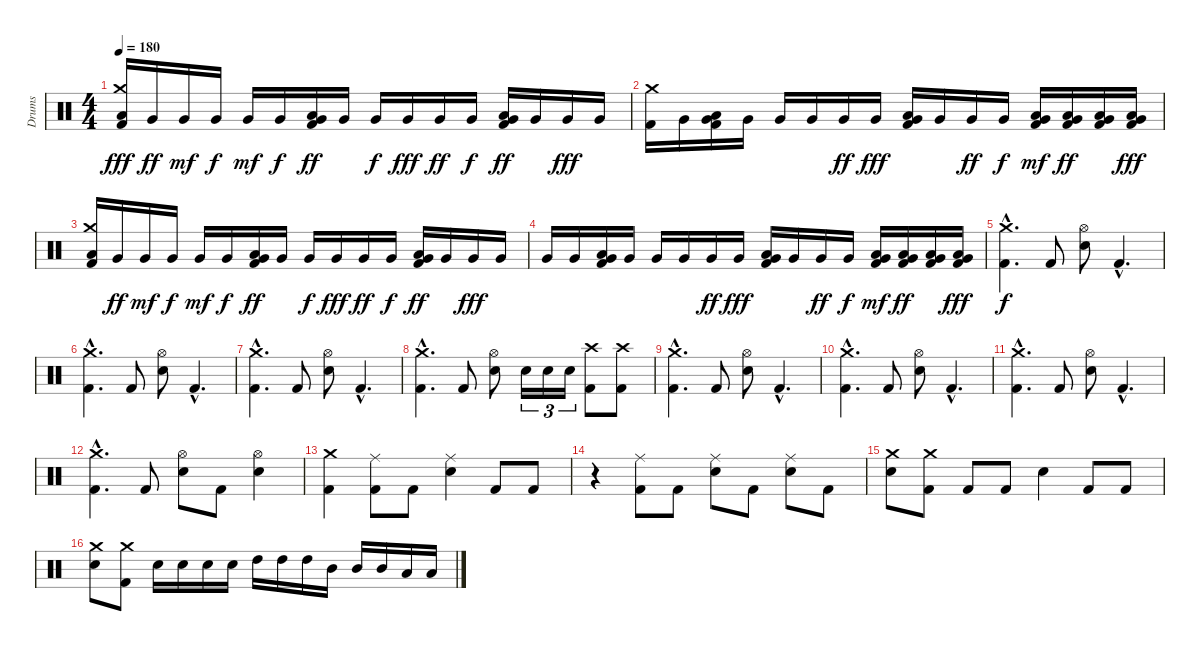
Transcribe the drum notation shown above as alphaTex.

\track ("Drums" "Drums") {instrument percussion}
\staff {score}
\articulation defaults
\ts (4 4)
\tempo 180
\clef neutral
\ks c
("Low Floor Tom (hit)" "Crash medium (hit)" "Kick (hit) 2").16{dy fff} "Very Low Tom (hit)".16{dy ff} "Very Low Tom (hit)".16{dy mf} "Very Low Tom (hit)".16{dy f} "Very Low Tom (hit)".16{dy mf} "Very Low Tom (hit)".16{dy f} ("Low Floor Tom (hit)" "Very Low Tom (hit)" "Kick (hit) 2").16{dy ff} "Very Low Tom (hit)".16 "Very Low Tom (hit)".16{dy f} "Very Low Tom (hit)".16{dy fff} "Very Low Tom (hit)".16{dy ff} "Very Low Tom (hit)".16{dy f} ("Low Floor Tom (hit)" "Very Low Tom (hit)" "Kick (hit) 2").16{dy ff} "Very Low Tom (hit)".16 "Very Low Tom (hit)".16{dy fff} "Very Low Tom (hit)".16 |
("Kick (hit) 2" "Crash medium (hit)").16 "Very Low Tom (hit)".16 ("Low Floor Tom (hit)" "Very Low Tom (hit)" "Kick (hit) 2").16 "Very Low Tom (hit)".16 "Very Low Tom (hit)".16 "Very Low Tom (hit)".16 "Very Low Tom (hit)".16{dy ff} "Very Low Tom (hit)".16{dy fff} ("Kick (hit) 2" "Very Low Tom (hit)" "Low Floor Tom (hit)").16 "Very Low Tom (hit)".16 "Very Low Tom (hit)".16{dy ff} "Very Low Tom (hit)".16{dy f} ("Kick (hit) 2" "Very Low Tom (hit)" "Low Floor Tom (hit)").16{dy mf} ("Low Floor Tom (hit)" "Very Low Tom (hit)" "Kick (hit) 2").16{dy ff} ("Low Floor Tom (hit)" "Very Low Tom (hit)" "Kick (hit) 2").16 ("Low Floor Tom (hit)" "Very Low Tom (hit)" "Kick (hit) 2").16{dy fff} |
("Low Floor Tom (hit)" "Crash medium (hit)" "Kick (hit) 2").16 "Very Low Tom (hit)".16{dy ff} "Very Low Tom (hit)".16{dy mf} "Very Low Tom (hit)".16{dy f} "Very Low Tom (hit)".16{dy mf} "Very Low Tom (hit)".16{dy f} ("Low Floor Tom (hit)" "Very Low Tom (hit)" "Kick (hit) 2").16{dy ff} "Very Low Tom (hit)".16 "Very Low Tom (hit)".16{dy f} "Very Low Tom (hit)".16{dy fff} "Very Low Tom (hit)".16{dy ff} "Very Low Tom (hit)".16{dy f} ("Low Floor Tom (hit)" "Very Low Tom (hit)" "Kick (hit) 2").16{dy ff} "Very Low Tom (hit)".16 "Very Low Tom (hit)".16{dy fff} "Very Low Tom (hit)".16 |
"Very Low Tom (hit)".16 "Very Low Tom (hit)".16 ("Low Floor Tom (hit)" "Very Low Tom (hit)" "Kick (hit) 2").16 "Very Low Tom (hit)".16 "Very Low Tom (hit)".16 "Very Low Tom (hit)".16 "Very Low Tom (hit)".16{dy ff} "Very Low Tom (hit)".16{dy fff} ("Kick (hit) 2" "Very Low Tom (hit)" "Low Floor Tom (hit)").16 "Very Low Tom (hit)".16 "Very Low Tom (hit)".16{dy ff} "Very Low Tom (hit)".16{dy f} ("Kick (hit) 2" "Very Low Tom (hit)" "Low Floor Tom (hit)").16{dy mf} ("Low Floor Tom (hit)" "Very Low Tom (hit)" "Kick (hit) 2").16{dy ff} ("Low Floor Tom (hit)" "Very Low Tom (hit)" "Kick (hit) 2").16 ("Low Floor Tom (hit)" "Very Low Tom (hit)" "Kick (hit) 2").16{dy fff} |
("Kick (hit) 2"{hac} "Crash medium (hit)"{hac}).4{d dy f} "Kick (hit) 2".8 ("Electric Snare (hit)" "Hi-Hat (open)").8 "Kick (hit) 2"{hac}.4{d} |
("Kick (hit) 2"{hac} "Crash medium (hit)"{hac}).4{d} "Kick (hit) 2".8 ("Electric Snare (hit)" "Hi-Hat (open)").8 "Kick (hit) 2"{hac}.4{d} |
("Kick (hit) 2"{hac} "Crash medium (hit)"{hac}).4{d} "Kick (hit) 2".8 ("Electric Snare (hit)" "Hi-Hat (open)").8 "Kick (hit) 2"{hac}.4{d} |
("Kick (hit) 2"{hac} "Crash medium (hit)"{hac}).4{d} "Kick (hit) 2".8 ("Electric Snare (hit)" "Hi-Hat (open)").8 "Electric Snare (hit)".16{tu (3 2)} "Electric Snare (hit)".16{tu (3 2)} "Electric Snare (hit)".16{tu (3 2)} ("Kick (hit) 2" "Crash high (hit)").8 ("Kick (hit) 2" "Crash high (hit)").8 |
("Kick (hit) 2"{hac} "Crash medium (hit)"{hac}).4{d} "Kick (hit) 2".8 ("Electric Snare (hit)" "Hi-Hat (open)").8 "Kick (hit) 2"{hac}.4{d} |
("Kick (hit) 2"{hac} "Crash medium (hit)"{hac}).4{d} "Kick (hit) 2".8 ("Electric Snare (hit)" "Hi-Hat (open)").8 "Kick (hit) 2"{hac}.4{d} |
("Kick (hit) 2"{hac} "Crash medium (hit)"{hac}).4{d} "Kick (hit) 2".8 ("Electric Snare (hit)" "Hi-Hat (open)").8 "Kick (hit) 2"{hac}.4{d} |
("Kick (hit) 2"{hac} "Crash medium (hit)"{hac}).4{d} "Kick (hit) 2".8 ("Electric Snare (hit)" "Hi-Hat (open)").8 "Kick (hit) 2".8 ("Electric Snare (hit)" "Hi-Hat (open)").4 |
("Crash medium (hit)" "Kick (hit) 2").4 ("Kick (hit) 2" "Ride (middle)").8 "Kick (hit) 2".8 ("Electric Snare (hit)" "Ride (middle)").4 "Kick (hit) 2".8 "Kick (hit) 2".8 |
r.4 ("Kick (hit) 2" "Ride (middle)").8 "Kick (hit) 2".8 ("Electric Snare (hit)" "Ride (middle)").8 "Kick (hit) 2".8 ("Electric Snare (hit)" "Ride (middle)").8 "Kick (hit) 2".8 |
("Electric Snare (hit)" "Crash medium (hit)").8 ("Kick (hit) 2" "Crash medium (hit)").8 "Kick (hit) 2".8 "Kick (hit) 2".8 "Electric Snare (hit)".4 "Kick (hit) 2".8 "Kick (hit) 2".8 |
("Electric Snare (hit)" "Crash medium (hit)").8 ("Kick (hit) 2" "Crash medium (hit)").8 "Electric Snare (hit)".16 "Electric Snare (hit)".16 "Electric Snare (hit)".16 "Electric Snare (hit)".16 "High Tom (hit)".16 "High Tom (hit)".16 "High Tom (hit)".16 "Mid Tom (hit)".16 "Mid Tom (hit)".16 "Mid Tom (hit)".16 "Low Tom (hit)".16 "Low Tom (hit)".16
